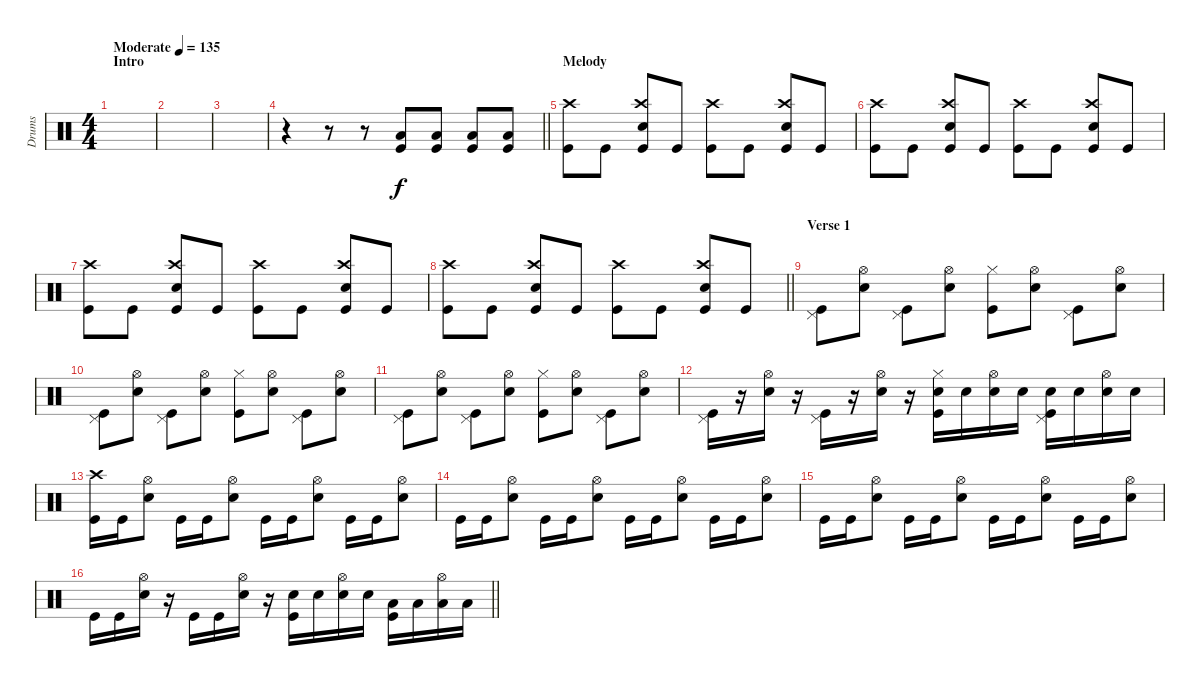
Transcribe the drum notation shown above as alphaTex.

\track ("Drums" "Drums") {instrument percussion}
\staff {score}
\articulation defaults
\ts (4 4)
\section ("" "Intro")
\tempo (135 "Moderate")
\clef neutral
\ks c
|
|
|
\barLineRight lightlight
r.4 r.8 r.8 ("Low Tom (hit)" "Kick (hit)").8 ("Low Floor Tom (hit)" "Kick (hit)").8 ("Low Tom (hit)" "Kick (hit)").8 ("Low Floor Tom (hit)" "Kick (hit)").8 |
\section ("" "Melody")
("Crash high (hit)" "Kick (hit)").8 "Kick (hit)".8 ("Crash high (hit)" "Snare (hit) 2" "Kick (hit)").8 "Kick (hit)".8 ("Crash high (hit)" "Kick (hit)").8 "Kick (hit)".8 ("Crash high (hit)" "Snare (hit) 2" "Kick (hit)").8 "Kick (hit)".8 |
("Crash high (hit)" "Kick (hit)").8 "Kick (hit)".8 ("Crash high (hit)" "Snare (hit) 2" "Kick (hit)").8 "Kick (hit)".8 ("Crash high (hit)" "Kick (hit)").8 "Kick (hit)".8 ("Crash high (hit)" "Snare (hit) 2" "Kick (hit)").8 "Kick (hit)".8 |
("Crash high (hit)" "Kick (hit)").8 "Kick (hit)".8 ("Crash high (hit)" "Snare (hit) 2" "Kick (hit)").8 "Kick (hit)".8 ("Crash high (hit)" "Kick (hit)").8 "Kick (hit)".8 ("Crash high (hit)" "Snare (hit) 2" "Kick (hit)").8 "Kick (hit)".8 |
\barLineRight lightlight
("Crash high (hit)" "Kick (hit)").8 "Kick (hit)".8 ("Crash high (hit)" "Snare (hit) 2" "Kick (hit)").8 "Kick (hit)".8 ("Crash high (hit)" "Kick (hit)").8 "Kick (hit)".8 ("Crash high (hit)" "Snare (hit) 2" "Kick (hit)").8 "Kick (hit)".8 |
\section ("" "Verse 1")
("Pedal Hi-Hat (hit)" "Kick (hit)").8 ("Hi-Hat (open)" "Snare (hit) 2").8 ("Pedal Hi-Hat (hit)" "Kick (hit)").8 ("Hi-Hat (open)" "Snare (hit) 2").8 ("Hi-Hat (closed)" "Kick (hit)").8 ("Hi-Hat (open)" "Snare (hit) 2").8 ("Pedal Hi-Hat (hit)" "Kick (hit)").8 ("Hi-Hat (open)" "Snare (hit) 2").8 |
("Pedal Hi-Hat (hit)" "Kick (hit)").8 ("Hi-Hat (open)" "Snare (hit) 2").8 ("Pedal Hi-Hat (hit)" "Kick (hit)").8 ("Hi-Hat (open)" "Snare (hit) 2").8 ("Hi-Hat (closed)" "Kick (hit)").8 ("Hi-Hat (open)" "Snare (hit) 2").8 ("Pedal Hi-Hat (hit)" "Kick (hit)").8 ("Hi-Hat (open)" "Snare (hit) 2").8 |
("Pedal Hi-Hat (hit)" "Kick (hit)").8 ("Hi-Hat (open)" "Snare (hit) 2").8 ("Pedal Hi-Hat (hit)" "Kick (hit)").8 ("Hi-Hat (open)" "Snare (hit) 2").8 ("Hi-Hat (closed)" "Kick (hit)").8 ("Hi-Hat (open)" "Snare (hit) 2").8 ("Pedal Hi-Hat (hit)" "Kick (hit)").8 ("Hi-Hat (open)" "Snare (hit) 2").8 |
("Pedal Hi-Hat (hit)" "Kick (hit)").16 r.16 ("Hi-Hat (open)" "Snare (hit) 2").16 r.16 ("Pedal Hi-Hat (hit)" "Kick (hit)").16 r.16 ("Hi-Hat (open)" "Snare (hit) 2").16 r.16 ("Hi-Hat (closed)" "Snare (hit) 2" "Kick (hit)").16 "Snare (hit) 2".16 ("Hi-Hat (open)" "Snare (hit) 2").16 "Snare (hit) 2".16 ("Pedal Hi-Hat (hit)" "Snare (hit) 2" "Kick (hit)").16 "Snare (hit) 2".16 ("Hi-Hat (open)" "Snare (hit) 2").16 "Snare (hit) 2".16 |
("Crash high (hit)" "Kick (hit)").16 "Kick (hit)".16 ("Hi-Hat (open)" "Snare (hit) 2").8 "Kick (hit)".16 "Kick (hit)".16 ("Hi-Hat (open)" "Snare (hit) 2").8 "Kick (hit)".16 "Kick (hit)".16 ("Hi-Hat (open)" "Snare (hit) 2").8 "Kick (hit)".16 "Kick (hit)".16 ("Hi-Hat (open)" "Snare (hit) 2").8 |
"Kick (hit)".16 "Kick (hit)".16 ("Hi-Hat (open)" "Snare (hit) 2").8 "Kick (hit)".16 "Kick (hit)".16 ("Hi-Hat (open)" "Snare (hit) 2").8 "Kick (hit)".16 "Kick (hit)".16 ("Hi-Hat (open)" "Snare (hit) 2").8 "Kick (hit)".16 "Kick (hit)".16 ("Hi-Hat (open)" "Snare (hit) 2").8 |
"Kick (hit)".16 "Kick (hit)".16 ("Hi-Hat (open)" "Snare (hit) 2").8 "Kick (hit)".16 "Kick (hit)".16 ("Hi-Hat (open)" "Snare (hit) 2").8 "Kick (hit)".16 "Kick (hit)".16 ("Hi-Hat (open)" "Snare (hit) 2").8 "Kick (hit)".16 "Kick (hit)".16 ("Hi-Hat (open)" "Snare (hit) 2").8 |
\barLineRight lightlight "Kick (hit)".16 "Kick (hit)".16
("Hi-Hat (open)" "Snare (hit) 2").16 r.16 "Kick (hit)".16 "Kick (hit)".16 ("Hi-Hat (open)" "Snare (hit) 2").16 r.16 ("Snare (hit) 2" "Kick (hit)").16 "Snare (hit) 2".16 ("Hi-Hat (open)" "Snare (hit) 2").16 "Snare (hit) 2".16 ("Low Tom (hit)" "Kick (hit)").16 "Low Tom (hit)".16 ("Hi-Hat (open)" "Low Tom (hit)").16 "Low Tom (hit)".16
